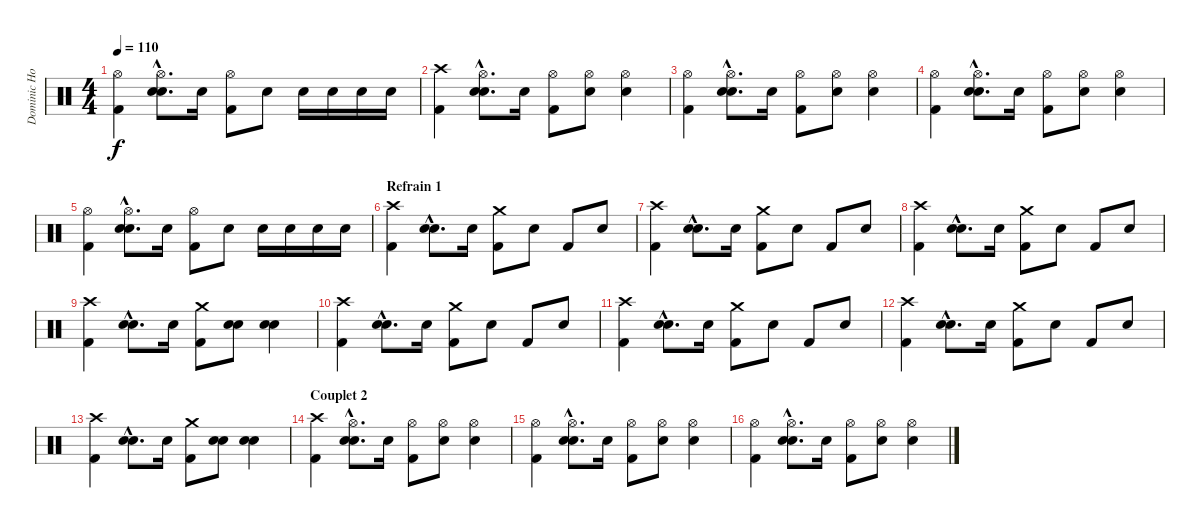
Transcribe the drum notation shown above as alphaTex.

\track ("Dominic Howard - Percussions" "Dominic Ho") {instrument percussion}
\staff {score}
\articulation defaults
\ts (4 4)
\tempo 110
\clef neutral
\ks c
("Hi-Hat (open)" "Kick (hit) 2").4{dy f} ("Hi-Hat (open)"{hac} "Snare (hit) 2"{hac} "Snare (hit) 2"{hac}).8{d} "Snare (hit) 2".16 ("Hi-Hat (open)" "Kick (hit) 2").8 "Snare (hit) 2".8 "Snare (hit) 2".16 "Snare (hit) 2".16 "Snare (hit) 2".16 "Snare (hit) 2".16 |
("Crash high (hit)" "Kick (hit) 2").4 ("Hi-Hat (open)"{hac} "Snare (hit) 2"{hac} "Snare (hit) 2"{hac}).8{d} "Snare (hit) 2".16 ("Hi-Hat (open)" "Kick (hit) 2").8 ("Hi-Hat (open)" "Snare (hit) 2").8 ("Hi-Hat (open)" "Snare (hit) 2").4 |
("Hi-Hat (open)" "Kick (hit) 2").4 ("Hi-Hat (open)"{hac} "Snare (hit) 2"{hac} "Snare (hit) 2"{hac}).8{d} "Snare (hit) 2".16 ("Hi-Hat (open)" "Kick (hit) 2").8 ("Hi-Hat (open)" "Snare (hit) 2").8 ("Hi-Hat (open)" "Snare (hit) 2").4 |
("Hi-Hat (open)" "Kick (hit) 2").4 ("Hi-Hat (open)"{hac} "Snare (hit) 2"{hac} "Snare (hit) 2"{hac}).8{d} "Snare (hit) 2".16 ("Hi-Hat (open)" "Kick (hit) 2").8 ("Hi-Hat (open)" "Snare (hit) 2").8 ("Hi-Hat (open)" "Snare (hit) 2").4 |
("Hi-Hat (open)" "Kick (hit) 2").4 ("Hi-Hat (open)"{hac} "Snare (hit) 2"{hac} "Snare (hit) 2"{hac}).8{d} "Snare (hit) 2".16 ("Hi-Hat (open)" "Kick (hit) 2").8 "Snare (hit) 2".8 "Snare (hit) 2".16 "Snare (hit) 2".16 "Snare (hit) 2".16 "Snare (hit) 2".16 |
\section ("" "Refrain 1")
("Crash high (hit)" "Kick (hit) 2").4 ("Snare (hit) 2"{hac} "Snare (hit) 2"{hac}).8{d} "Snare (hit) 2".16 ("Crash medium (hit)" "Kick (hit) 2").8 "Snare (hit) 2".8 "Kick (hit) 2".8 "Snare (hit) 2".8 |
("Crash high (hit)" "Kick (hit) 2").4 ("Snare (hit) 2"{hac} "Snare (hit) 2"{hac}).8{d} "Snare (hit) 2".16 ("Crash medium (hit)" "Kick (hit) 2").8 "Snare (hit) 2".8 "Kick (hit) 2".8 "Snare (hit) 2".8 |
("Crash high (hit)" "Kick (hit) 2").4 ("Snare (hit) 2"{hac} "Snare (hit) 2"{hac}).8{d} "Snare (hit) 2".16 ("Crash medium (hit)" "Kick (hit) 2").8 "Snare (hit) 2".8 "Kick (hit) 2".8 "Snare (hit) 2".8 |
("Crash high (hit)" "Kick (hit) 2").4 ("Snare (hit) 2"{hac} "Snare (hit) 2"{hac}).8{d} "Snare (hit) 2".16 ("Crash medium (hit)" "Kick (hit) 2").8 ("Snare (hit) 2" "Snare (hit) 2").8 ("Snare (hit) 2" "Snare (hit) 2").4 |
("Crash high (hit)" "Kick (hit) 2").4 ("Snare (hit) 2"{hac} "Snare (hit) 2"{hac}).8{d} "Snare (hit) 2".16 ("Crash medium (hit)" "Kick (hit) 2").8 "Snare (hit) 2".8 "Kick (hit) 2".8 "Snare (hit) 2".8 |
("Crash high (hit)" "Kick (hit) 2").4 ("Snare (hit) 2"{hac} "Snare (hit) 2"{hac}).8{d} "Snare (hit) 2".16 ("Crash medium (hit)" "Kick (hit) 2").8 "Snare (hit) 2".8 "Kick (hit) 2".8 "Snare (hit) 2".8 |
("Crash high (hit)" "Kick (hit) 2").4 ("Snare (hit) 2"{hac} "Snare (hit) 2"{hac}).8{d} "Snare (hit) 2".16 ("Crash medium (hit)" "Kick (hit) 2").8 "Snare (hit) 2".8 "Kick (hit) 2".8 "Snare (hit) 2".8 |
("Crash high (hit)" "Kick (hit) 2").4 ("Snare (hit) 2"{hac} "Snare (hit) 2"{hac}).8{d} "Snare (hit) 2".16 ("Crash medium (hit)" "Kick (hit) 2").8 ("Snare (hit) 2" "Snare (hit) 2").8 ("Snare (hit) 2" "Snare (hit) 2").4 |
\section ("" "Couplet 2")
("Crash high (hit)" "Kick (hit) 2").4 ("Hi-Hat (open)"{hac} "Snare (hit) 2"{hac} "Snare (hit) 2"{hac}).8{d} "Snare (hit) 2".16 ("Hi-Hat (open)" "Kick (hit) 2").8 ("Hi-Hat (open)" "Snare (hit) 2").8 ("Hi-Hat (open)" "Snare (hit) 2").4 |
("Hi-Hat (open)" "Kick (hit) 2").4 ("Hi-Hat (open)"{hac} "Snare (hit) 2"{hac} "Snare (hit) 2"{hac}).8{d} "Snare (hit) 2".16 ("Hi-Hat (open)" "Kick (hit) 2").8 ("Hi-Hat (open)" "Snare (hit) 2").8 ("Hi-Hat (open)" "Snare (hit) 2").4 |
("Hi-Hat (open)" "Kick (hit) 2").4 ("Hi-Hat (open)"{hac} "Snare (hit) 2"{hac} "Snare (hit) 2"{hac}).8{d} "Snare (hit) 2".16 ("Hi-Hat (open)" "Kick (hit) 2").8 ("Hi-Hat (open)" "Snare (hit) 2").8 ("Hi-Hat (open)" "Snare (hit) 2").4
